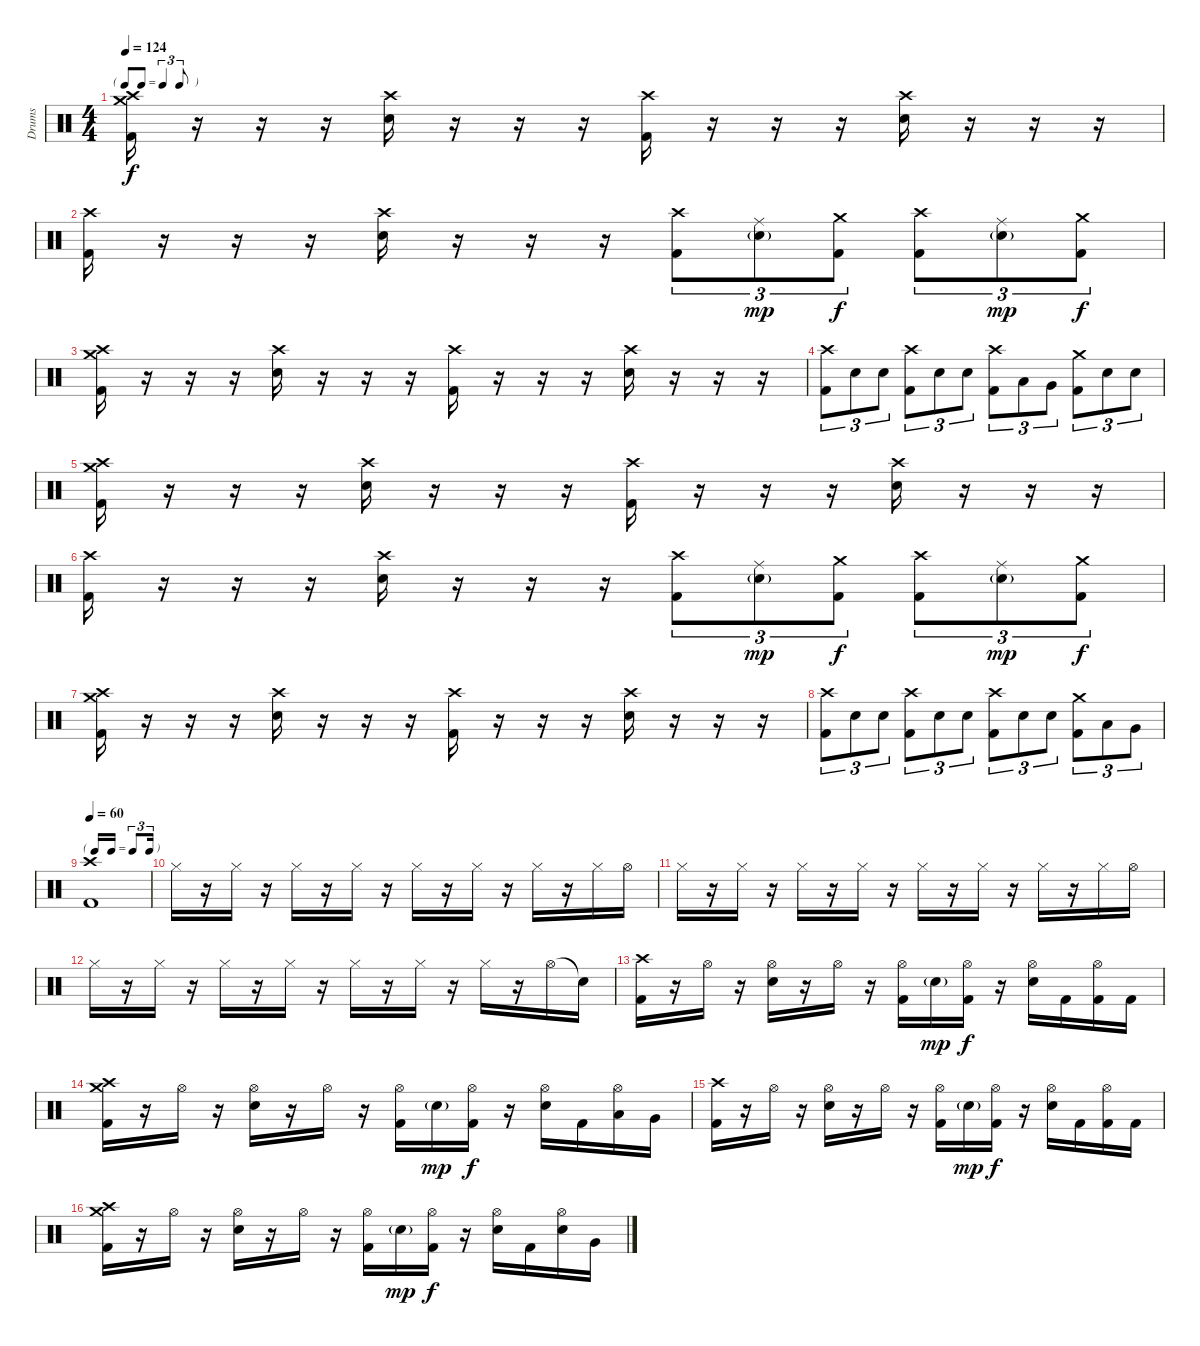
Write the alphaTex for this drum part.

\track ("Drums" "Drums") {instrument percussion}
\staff
\articulation defaults
\ts (4 4)
\tf triplet8th
\tempo 124
\clef neutral
\ks c
("Kick (hit) 2" "Crash high (hit)" "Crash medium (hit)").16{dy f} r.16 r.16 r.16 ("Electric Snare (hit)" "Crash high (hit)").16 r.16 r.16 r.16 ("Kick (hit) 2" "Crash high (hit)").16 r.16 r.16 r.16 ("Electric Snare (hit)" "Crash high (hit)").16 r.16 r.16 r.16 |
("Kick (hit) 2" "Crash high (hit)").16 r.16 r.16 r.16 ("Electric Snare (hit)" "Crash high (hit)").16 r.16 r.16 r.16 ("Kick (hit) 2" "Crash high (hit)").8{tu (3 2)} ("Electric Snare (hit)"{g} "Ride (middle)").8{tu (3 2) dy mp} ("Kick (hit) 2" "Crash medium (hit)").8{tu (3 2) dy f} ("Kick (hit) 2" "Crash high (hit)").8{tu (3 2)} ("Electric Snare (hit)"{g} "Ride (middle)").8{tu (3 2) dy mp} ("Kick (hit) 2" "Crash medium (hit)").8{tu (3 2) dy f} |
("Kick (hit) 2" "Crash high (hit)" "Crash medium (hit)").16 r.16 r.16 r.16 ("Electric Snare (hit)" "Crash high (hit)").16 r.16 r.16 r.16 ("Kick (hit) 2" "Crash high (hit)").16 r.16 r.16 r.16 ("Electric Snare (hit)" "Crash high (hit)").16 r.16 r.16 r.16 |
("Kick (hit) 2" "Crash high (hit)").8{tu (3 2)} "Electric Snare (hit)".8{tu (3 2)} "Electric Snare (hit)".8{tu (3 2)} ("Kick (hit) 2" "Crash high (hit)").8{tu (3 2)} "Electric Snare (hit)".8{tu (3 2)} "Electric Snare (hit)".8{tu (3 2)} ("Kick (hit) 2" "Crash high (hit)").8{tu (3 2)} "Low Tom (hit)".8{tu (3 2)} "Very Low Tom (hit)".8{tu (3 2)} ("Kick (hit) 2" "Crash medium (hit)").8{tu (3 2)} "Electric Snare (hit)".8{tu (3 2)} "Electric Snare (hit)".8{tu (3 2)} |
("Kick (hit) 2" "Crash high (hit)" "Crash medium (hit)").16 r.16 r.16 r.16 ("Electric Snare (hit)" "Crash high (hit)").16 r.16 r.16 r.16 ("Kick (hit) 2" "Crash high (hit)").16 r.16 r.16 r.16 ("Electric Snare (hit)" "Crash high (hit)").16 r.16 r.16 r.16 |
("Kick (hit) 2" "Crash high (hit)").16 r.16 r.16 r.16 ("Electric Snare (hit)" "Crash high (hit)").16 r.16 r.16 r.16 ("Kick (hit) 2" "Crash high (hit)").8{tu (3 2)} ("Electric Snare (hit)"{g} "Ride (middle)").8{tu (3 2) dy mp} ("Kick (hit) 2" "Crash medium (hit)").8{tu (3 2) dy f} ("Kick (hit) 2" "Crash high (hit)").8{tu (3 2)} ("Electric Snare (hit)"{g} "Ride (middle)").8{tu (3 2) dy mp} ("Kick (hit) 2" "Crash medium (hit)").8{tu (3 2) dy f} |
("Kick (hit) 2" "Crash high (hit)" "Crash medium (hit)").16 r.16 r.16 r.16 ("Electric Snare (hit)" "Crash high (hit)").16 r.16 r.16 r.16 ("Kick (hit) 2" "Crash high (hit)").16 r.16 r.16 r.16 ("Electric Snare (hit)" "Crash high (hit)").16 r.16 r.16 r.16 |
("Kick (hit) 2" "Crash high (hit)").8{tu (3 2)} "Electric Snare (hit)".8{tu (3 2)} "Electric Snare (hit)".8{tu (3 2)} ("Kick (hit) 2" "Crash high (hit)").8{tu (3 2)} "Electric Snare (hit)".8{tu (3 2)} "Electric Snare (hit)".8{tu (3 2)} ("Kick (hit) 2" "Crash high (hit)").8{tu (3 2)} "Electric Snare (hit)".8{tu (3 2)} "Electric Snare (hit)".8{tu (3 2)} ("Kick (hit) 2" "Crash medium (hit)").8{tu (3 2)} "Low Tom (hit)".8{tu (3 2)} "Very Low Tom (hit)".8{tu (3 2)} |
\tf triplet16th
\tempo 60
("Kick (hit) 2" "Crash high (hit)").1 |
"Hi-Hat (closed)".16 r.16 "Hi-Hat (closed)".16 r.16 "Hi-Hat (closed)".16 r.16 "Hi-Hat (closed)".16 r.16 "Hi-Hat (closed)".16 r.16 "Hi-Hat (closed)".16 r.16 "Hi-Hat (closed)".16 r.16 "Hi-Hat (closed)".16 "Hi-Hat (open)".16 |
"Hi-Hat (closed)".16 r.16 "Hi-Hat (closed)".16 r.16 "Hi-Hat (closed)".16 r.16 "Hi-Hat (closed)".16 r.16 "Hi-Hat (closed)".16 r.16 "Hi-Hat (closed)".16 r.16 "Hi-Hat (closed)".16 r.16 "Hi-Hat (closed)".16 "Hi-Hat (open)".16 |
"Hi-Hat (closed)".16 r.16 "Hi-Hat (closed)".16 r.16 "Hi-Hat (closed)".16 r.16 "Hi-Hat (closed)".16 r.16 "Hi-Hat (closed)".16 r.16 "Hi-Hat (closed)".16 r.16 "Hi-Hat (closed)".16 r.16 "Hi-Hat (open)".16 "Snare (hit)"{t}.16 |
("Kick (hit) 2" "Crash high (hit)").16 r.16 "Hi-Hat (open)".16 r.16 ("Electric Snare (hit)" "Hi-Hat (open)").16 r.16 "Hi-Hat (open)".16 r.16 ("Kick (hit) 2" "Hi-Hat (open)").16 "Electric Snare (hit)"{g}.16{dy mp} ("Kick (hit) 2" "Hi-Hat (open)").16{dy f} r.16 ("Electric Snare (hit)" "Hi-Hat (open)").16 "Kick (hit) 2".16 ("Kick (hit) 2" "Hi-Hat (open)").16 "Kick (hit) 2".16 |
("Kick (hit) 2" "Crash high (hit)" "Crash medium (hit)").16 r.16 "Hi-Hat (open)".16 r.16 ("Electric Snare (hit)" "Hi-Hat (open)").16 r.16 "Hi-Hat (open)".16 r.16 ("Kick (hit) 2" "Hi-Hat (open)").16 "Electric Snare (hit)"{g}.16{dy mp} ("Kick (hit) 2" "Hi-Hat (open)").16{dy f} r.16 ("Electric Snare (hit)" "Hi-Hat (open)").16 "Kick (hit) 2".16 ("Low Tom (hit)" "Hi-Hat (open)").16 "Very Low Tom (hit)".16 |
("Kick (hit) 2" "Crash high (hit)").16 r.16 "Hi-Hat (open)".16 r.16 ("Electric Snare (hit)" "Hi-Hat (open)").16 r.16 "Hi-Hat (open)".16 r.16 ("Kick (hit) 2" "Hi-Hat (open)").16 "Electric Snare (hit)"{g}.16{dy mp} ("Kick (hit) 2" "Hi-Hat (open)").16{dy f} r.16 ("Electric Snare (hit)" "Hi-Hat (open)").16 "Kick (hit) 2".16 ("Kick (hit) 2" "Hi-Hat (open)").16 "Kick (hit) 2".16 |
("Kick (hit) 2" "Crash high (hit)" "Crash medium (hit)").16 r.16 "Hi-Hat (open)".16 r.16 ("Electric Snare (hit)" "Hi-Hat (open)").16 r.16 "Hi-Hat (open)".16 r.16 ("Kick (hit) 2" "Hi-Hat (open)").16 "Electric Snare (hit)"{g}.16{dy mp} ("Kick (hit) 2" "Hi-Hat (open)").16{dy f} r.16 ("Electric Snare (hit)" "Hi-Hat (open)").16 "Kick (hit) 2".16 ("Electric Snare (hit)" "Hi-Hat (open)").16 "Very Low Tom (hit)".16
